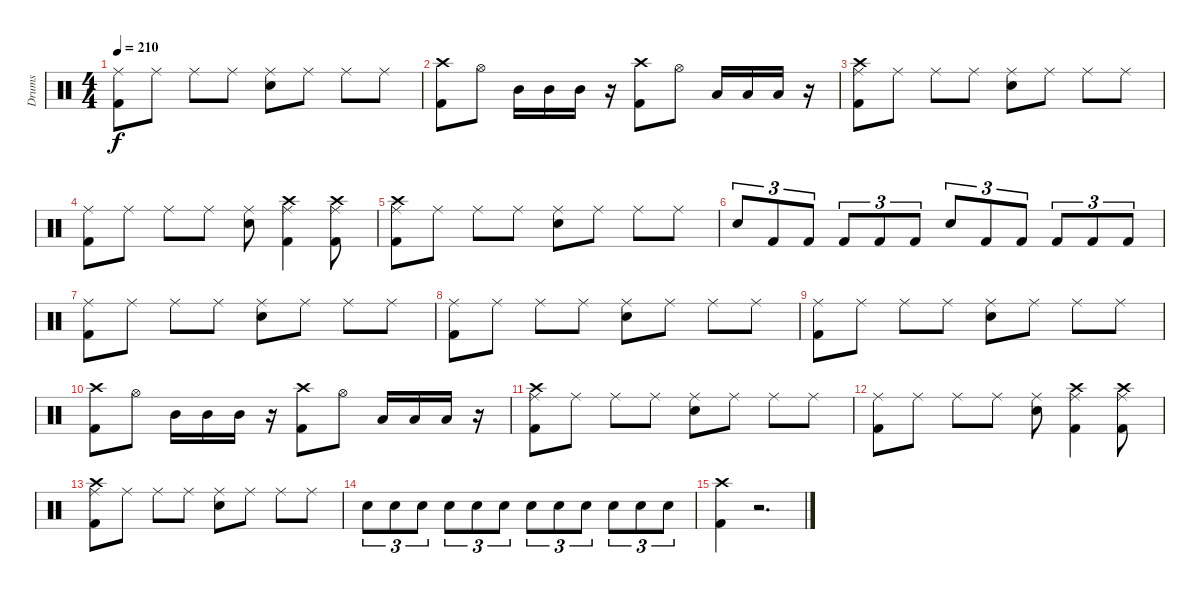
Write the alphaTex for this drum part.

\track ("Drums" "Drums") {instrument percussion}
\staff {score}
\articulation defaults
\ts (4 4)
\tempo 210
\clef neutral
\ks c
("Ride (middle)" "Kick (hit) 2").8{dy f} "Ride (middle)".8 "Ride (middle)".8 "Ride (middle)".8 ("Ride (middle)" "Electric Snare (hit)").8 "Ride (middle)".8 "Ride (middle)".8 "Ride (middle)".8 |
("Crash high (hit)" "Kick (hit) 2").8 "Hi-Hat (open)".8 "Mid Tom (hit)".16 "Mid Tom (hit)".16 "Mid Tom (hit)".16 r.16 ("Crash high (hit)" "Kick (hit) 2").8 "Hi-Hat (open)".8 "Low Tom (hit)".16 "Low Tom (hit)".16 "Low Floor Tom (hit)".16 r.16 |
("Crash high (hit)" "Ride (middle)" "Kick (hit) 2").8 "Ride (middle)".8 "Ride (middle)".8 "Ride (middle)".8 ("Ride (middle)" "Electric Snare (hit)").8 "Ride (middle)".8 "Ride (middle)".8 "Ride (middle)".8 |
("Ride (middle)" "Kick (hit) 2").8 "Ride (middle)".8 "Ride (middle)".8 "Ride (middle)".8 ("Ride (middle)" "Electric Snare (hit)").8 ("Crash high (hit)" "Ride (middle)" "Kick (hit) 2").4 ("Crash high (hit)" "Ride (middle)" "Kick (hit) 2").8 |
("Crash high (hit)" "Ride (middle)" "Kick (hit) 2").8 "Ride (middle)".8 "Ride (middle)".8 "Ride (middle)".8 ("Ride (middle)" "Electric Snare (hit)").8 "Ride (middle)".8 "Ride (middle)".8 "Ride (middle)".8 |
"Electric Snare (hit)".8{tu (3 2)} "Kick (hit) 2".8{tu (3 2)} "Kick (hit) 2".8{tu (3 2)} "Kick (hit) 2".8{tu (3 2)} "Kick (hit) 2".8{tu (3 2)} "Kick (hit) 2".8{tu (3 2)} "Electric Snare (hit)".8{tu (3 2)} "Kick (hit) 2".8{tu (3 2)} "Kick (hit) 2".8{tu (3 2)} "Kick (hit) 2".8{tu (3 2)} "Kick (hit) 2".8{tu (3 2)} "Kick (hit) 2".8{tu (3 2)} |
("Ride (middle)" "Kick (hit) 2").8 "Ride (middle)".8 "Ride (middle)".8 "Ride (middle)".8 ("Ride (middle)" "Electric Snare (hit)").8 "Ride (middle)".8 "Ride (middle)".8 "Ride (middle)".8 |
("Ride (middle)" "Kick (hit) 2").8 "Ride (middle)".8 "Ride (middle)".8 "Ride (middle)".8 ("Ride (middle)" "Electric Snare (hit)").8 "Ride (middle)".8 "Ride (middle)".8 "Ride (middle)".8 |
("Ride (middle)" "Kick (hit) 2").8 "Ride (middle)".8 "Ride (middle)".8 "Ride (middle)".8 ("Ride (middle)" "Electric Snare (hit)").8 "Ride (middle)".8 "Ride (middle)".8 "Ride (middle)".8 |
("Crash high (hit)" "Kick (hit) 2").8 "Hi-Hat (open)".8 "Mid Tom (hit)".16 "Mid Tom (hit)".16 "Mid Tom (hit)".16 r.16 ("Crash high (hit)" "Kick (hit) 2").8 "Hi-Hat (open)".8 "Low Tom (hit)".16 "Low Tom (hit)".16 "Low Floor Tom (hit)".16 r.16 |
("Crash high (hit)" "Ride (middle)" "Kick (hit) 2").8 "Ride (middle)".8 "Ride (middle)".8 "Ride (middle)".8 ("Ride (middle)" "Electric Snare (hit)").8 "Ride (middle)".8 "Ride (middle)".8 "Ride (middle)".8 |
("Ride (middle)" "Kick (hit) 2").8 "Ride (middle)".8 "Ride (middle)".8 "Ride (middle)".8 ("Ride (middle)" "Electric Snare (hit)").8 ("Crash high (hit)" "Ride (middle)" "Kick (hit) 2").4 ("Crash high (hit)" "Ride (middle)" "Kick (hit) 2").8 |
("Crash high (hit)" "Ride (middle)" "Kick (hit) 2").8 "Ride (middle)".8 "Ride (middle)".8 "Ride (middle)".8 ("Ride (middle)" "Electric Snare (hit)").8 "Ride (middle)".8 "Ride (middle)".8 "Ride (middle)".8 |
"Electric Snare (hit)".8{tu (3 2)} "Electric Snare (hit)".8{tu (3 2)} "Electric Snare (hit)".8{tu (3 2)} "Electric Snare (hit)".8{tu (3 2)} "Electric Snare (hit)".8{tu (3 2)} "Electric Snare (hit)".8{tu (3 2)} "Electric Snare (hit)".8{tu (3 2)} "Electric Snare (hit)".8{tu (3 2)} "Electric Snare (hit)".8{tu (3 2)} "Electric Snare (hit)".8{tu (3 2)} "Electric Snare (hit)".8{tu (3 2)} "Electric Snare (hit)".8{tu (3 2)} |
("Crash high (hit)" "Kick (hit) 2").4 r.2{d}
